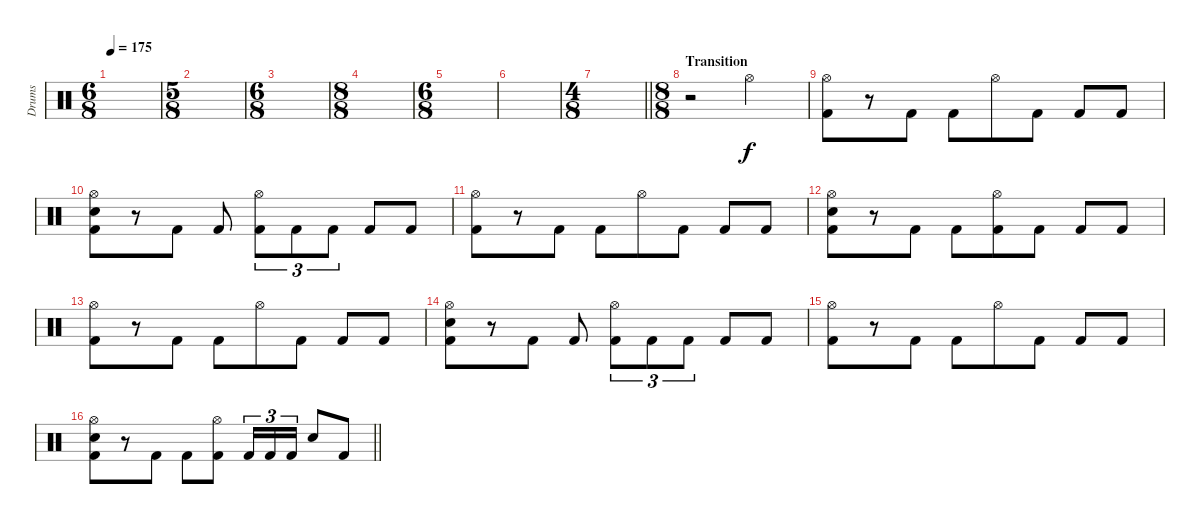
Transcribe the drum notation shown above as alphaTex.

\track ("Drums" "Drums") {instrument percussion}
\staff {score}
\articulation defaults
\ts (6 8)
\tempo 175
\clef neutral
\ks c
|
\ts (5 8)
|
\ts (6 8)
|
\ts (8 8)
|
\ts (6 8)
|
|
\ts (4 8)
\barLineRight lightlight
|
\ts (8 8)
\section ("" "Transition")
r.2 "Hi-Hat (open)".2 |
("Hi-Hat (open)" "Kick (hit) 2").8 r.8 "Kick (hit) 2".8 "Kick (hit) 2".8 "Hi-Hat (open)".8 "Kick (hit) 2".8 "Kick (hit) 2".8 "Kick (hit) 2".8 |
("Hi-Hat (open)" "Electric Snare (hit)" "Kick (hit) 2").8 r.8 "Kick (hit) 2".8 "Kick (hit) 2".8 ("Hi-Hat (open)" "Kick (hit) 2").8{tu (3 2)} "Kick (hit) 2".8{tu (3 2)} "Kick (hit) 2".8{tu (3 2)} "Kick (hit) 2".8 "Kick (hit) 2".8 |
("Hi-Hat (open)" "Kick (hit) 2").8 r.8 "Kick (hit) 2".8 "Kick (hit) 2".8 "Hi-Hat (open)".8 "Kick (hit) 2".8 "Kick (hit) 2".8 "Kick (hit) 2".8 |
("Hi-Hat (open)" "Electric Snare (hit)" "Kick (hit) 2").8 r.8 "Kick (hit) 2".8 "Kick (hit) 2".8 ("Hi-Hat (open)" "Kick (hit) 2").8 "Kick (hit) 2".8 "Kick (hit) 2".8 "Kick (hit) 2".8 |
("Hi-Hat (open)" "Kick (hit) 2").8 r.8 "Kick (hit) 2".8 "Kick (hit) 2".8 "Hi-Hat (open)".8 "Kick (hit) 2".8 "Kick (hit) 2".8 "Kick (hit) 2".8 |
("Hi-Hat (open)" "Electric Snare (hit)" "Kick (hit) 2").8 r.8 "Kick (hit) 2".8 "Kick (hit) 2".8 ("Hi-Hat (open)" "Kick (hit) 2").8{tu (3 2)} "Kick (hit) 2".8{tu (3 2)} "Kick (hit) 2".8{tu (3 2)} "Kick (hit) 2".8 "Kick (hit) 2".8 |
("Hi-Hat (open)" "Kick (hit) 2").8 r.8 "Kick (hit) 2".8 "Kick (hit) 2".8 "Hi-Hat (open)".8 "Kick (hit) 2".8 "Kick (hit) 2".8 "Kick (hit) 2".8 |
\barLineRight lightlight
("Hi-Hat (open)" "Electric Snare (hit)" "Kick (hit) 2").8 r.8 "Kick (hit) 2".8 "Kick (hit) 2".8 ("Hi-Hat (open)" "Kick (hit) 2").8 "Kick (hit) 2".16{tu (3 2)} "Kick (hit) 2".16{tu (3 2)} "Kick (hit) 2".16{tu (3 2)} "Electric Snare (hit)".8 "Kick (hit) 2".8
